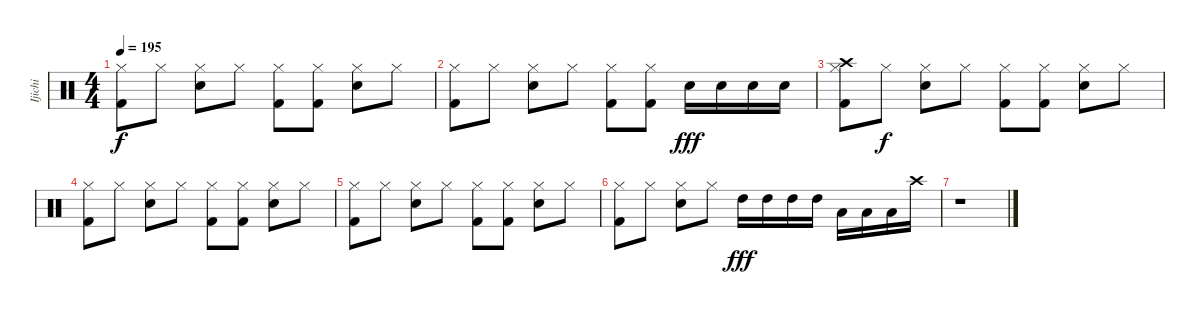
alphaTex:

\track ("Ijichi" "Ijichi") {instrument percussion}
\staff {score}
\articulation defaults
\ts (4 4)
\tempo 195
\clef neutral
\ks c
("Hi-Hat (closed)" "Kick (hit) 2").8{dy f} "Hi-Hat (closed)".8 ("Hi-Hat (closed)" "Snare (hit) 2").8 "Hi-Hat (closed)".8 ("Hi-Hat (closed)" "Kick (hit) 2").8 ("Hi-Hat (closed)" "Kick (hit) 2").8 ("Hi-Hat (closed)" "Snare (hit) 2").8 "Hi-Hat (closed)".8 |
("Hi-Hat (closed)" "Kick (hit) 2").8 "Hi-Hat (closed)".8 ("Hi-Hat (closed)" "Snare (hit) 2").8 "Hi-Hat (closed)".8 ("Hi-Hat (closed)" "Kick (hit) 2").8 ("Hi-Hat (closed)" "Kick (hit) 2").8 "Snare (hit) 2".16{dy fff} "Snare (hit) 2".16 "Snare (hit) 2".16 "Snare (hit) 2".16 |
("Hi-Hat (closed)" "Kick (hit) 2" "Crash high (hit)").8 "Hi-Hat (closed)".8{dy f} ("Hi-Hat (closed)" "Snare (hit) 2").8 "Hi-Hat (closed)".8 ("Hi-Hat (closed)" "Kick (hit) 2").8 ("Hi-Hat (closed)" "Kick (hit) 2").8 ("Hi-Hat (closed)" "Snare (hit) 2").8 "Hi-Hat (closed)".8 |
("Hi-Hat (closed)" "Kick (hit) 2").8 "Hi-Hat (closed)".8 ("Hi-Hat (closed)" "Snare (hit) 2").8 "Hi-Hat (closed)".8 ("Hi-Hat (closed)" "Kick (hit) 2").8 ("Hi-Hat (closed)" "Kick (hit) 2").8 ("Hi-Hat (closed)" "Snare (hit) 2").8 "Hi-Hat (closed)".8 |
("Hi-Hat (closed)" "Kick (hit) 2").8 "Hi-Hat (closed)".8 ("Hi-Hat (closed)" "Snare (hit) 2").8 "Hi-Hat (closed)".8 ("Hi-Hat (closed)" "Kick (hit) 2").8 ("Hi-Hat (closed)" "Kick (hit) 2").8 ("Hi-Hat (closed)" "Snare (hit) 2").8 "Hi-Hat (closed)".8 |
("Hi-Hat (closed)" "Kick (hit) 2").8 "Hi-Hat (closed)".8 ("Hi-Hat (closed)" "Snare (hit) 2").8 "Hi-Hat (closed)".8 "High Tom (hit)".16{dy fff} "High Tom (hit)".16 "High Tom (hit)".16 "High Tom (hit)".16 "Low Tom (hit)".16 "Low Tom (hit)".16 "Low Tom (hit)".16 "Crash high (hit)".16 |
r.1
